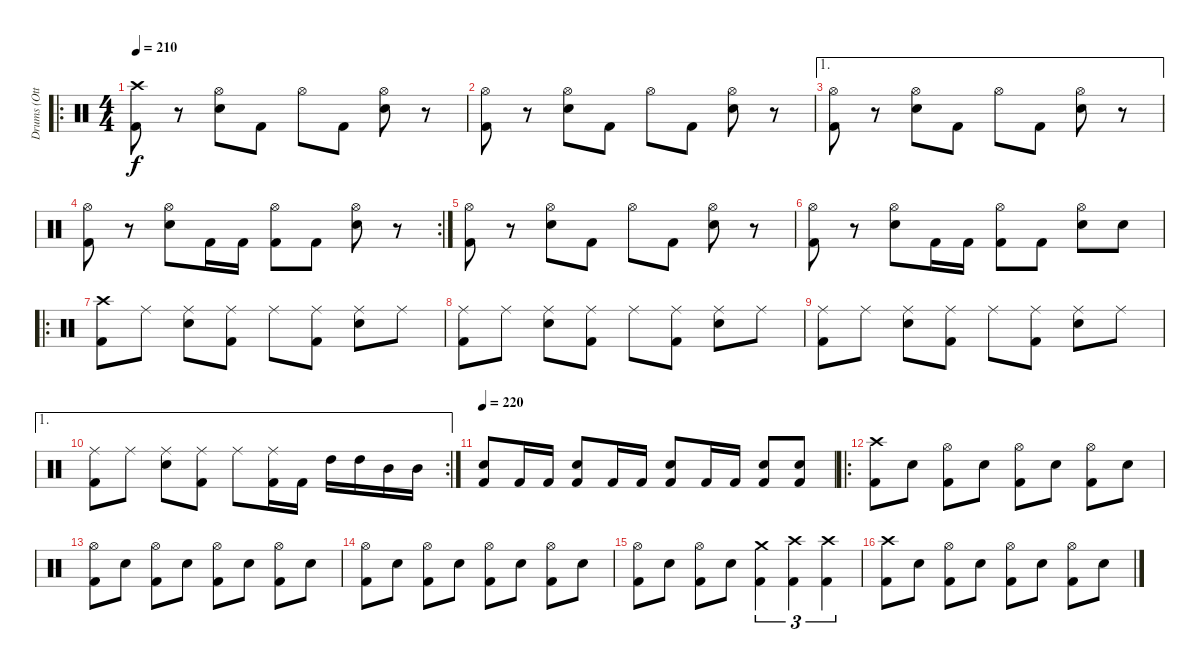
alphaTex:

\track ("Drums (Otto)" "Drums (Ott") {instrument percussion}
\staff {score}
\articulation defaults
\ro
\ts (4 4)
\tempo 210
\clef neutral
\ks c
("Crash high (hit)" "Kick (hit) 2").8{dy f} r.8 ("Hi-Hat (open)" "Electric Snare (hit)").8 "Kick (hit) 2".8 "Hi-Hat (open)".8 "Kick (hit) 2".8 ("Hi-Hat (open)" "Electric Snare (hit)").8 r.8 |
("Hi-Hat (open)" "Kick (hit) 2").8 r.8 ("Hi-Hat (open)" "Electric Snare (hit)").8 "Kick (hit) 2".8 "Hi-Hat (open)".8 "Kick (hit) 2".8 ("Hi-Hat (open)" "Electric Snare (hit)").8 r.8 |
\ae 1
("Hi-Hat (open)" "Kick (hit) 2").8 r.8 ("Hi-Hat (open)" "Electric Snare (hit)").8 "Kick (hit) 2".8 "Hi-Hat (open)".8 "Kick (hit) 2".8 ("Hi-Hat (open)" "Electric Snare (hit)").8 r.8 |
\rc 2
("Hi-Hat (open)" "Kick (hit) 2").8 r.8 ("Hi-Hat (open)" "Electric Snare (hit)").8 "Kick (hit) 2".16 "Kick (hit) 2".16 ("Hi-Hat (open)" "Kick (hit) 2").8 "Kick (hit) 2".8 ("Hi-Hat (open)" "Electric Snare (hit)").8 r.8 |
("Hi-Hat (open)" "Kick (hit) 2").8 r.8 ("Hi-Hat (open)" "Electric Snare (hit)").8 "Kick (hit) 2".8 "Hi-Hat (open)".8 "Kick (hit) 2".8 ("Hi-Hat (open)" "Electric Snare (hit)").8 r.8 |
("Hi-Hat (open)" "Kick (hit) 2").8 r.8 ("Hi-Hat (open)" "Electric Snare (hit)").8 "Kick (hit) 2".16 "Kick (hit) 2".16 ("Hi-Hat (open)" "Kick (hit) 2").8 "Kick (hit) 2".8 ("Hi-Hat (open)" "Electric Snare (hit)").8 "Electric Snare (hit)".8 |
\ro
("Crash high (hit)" "Kick (hit) 2").8 "Ride (middle)".8 ("Ride (middle)" "Electric Snare (hit)").8 ("Ride (middle)" "Kick (hit) 2").8 "Ride (middle)".8 ("Ride (middle)" "Kick (hit) 2").8 ("Ride (middle)" "Electric Snare (hit)").8 "Ride (middle)".8 |
("Ride (middle)" "Kick (hit) 2").8 "Ride (middle)".8 ("Ride (middle)" "Electric Snare (hit)").8 ("Ride (middle)" "Kick (hit) 2").8 "Ride (middle)".8 ("Ride (middle)" "Kick (hit) 2").8 ("Ride (middle)" "Electric Snare (hit)").8 "Ride (middle)".8 |
("Ride (middle)" "Kick (hit) 2").8 "Ride (middle)".8 ("Ride (middle)" "Electric Snare (hit)").8 ("Ride (middle)" "Kick (hit) 2").8 "Ride (middle)".8 ("Ride (middle)" "Kick (hit) 2").8 ("Ride (middle)" "Electric Snare (hit)").8 "Ride (middle)".8 |
\ae 1
\rc 2
("Ride (middle)" "Kick (hit) 2").8 "Ride (middle)".8 ("Ride (middle)" "Electric Snare (hit)").8 ("Ride (middle)" "Kick (hit) 2").8 "Ride (middle)".8 ("Ride (middle)" "Kick (hit) 2").16 "Kick (hit) 2".16 "High Tom (hit)".16 "High Tom (hit)".16 "Mid Tom (hit)".16 "Mid Tom (hit)".16 |
\tempo 220
("Electric Snare (hit)" "Kick (hit) 2").8 "Kick (hit) 2".16 "Kick (hit) 2".16 ("Electric Snare (hit)" "Kick (hit) 2").8 "Kick (hit) 2".16 "Kick (hit) 2".16 ("Electric Snare (hit)" "Kick (hit) 2").8 "Kick (hit) 2".16 "Kick (hit) 2".16 ("Electric Snare (hit)" "Kick (hit) 2").8 ("Electric Snare (hit)" "Kick (hit) 2").8 |
\ro
("Crash high (hit)" "Kick (hit) 2").8 "Electric Snare (hit)".8 ("Hi-Hat (open)" "Kick (hit) 2").8 "Electric Snare (hit)".8 ("Hi-Hat (open)" "Kick (hit) 2").8 "Electric Snare (hit)".8 ("Hi-Hat (open)" "Kick (hit) 2").8 "Electric Snare (hit)".8 |
("Hi-Hat (open)" "Kick (hit) 2").8 "Electric Snare (hit)".8 ("Hi-Hat (open)" "Kick (hit) 2").8 "Electric Snare (hit)".8 ("Hi-Hat (open)" "Kick (hit) 2").8 "Electric Snare (hit)".8 ("Hi-Hat (open)" "Kick (hit) 2").8 "Electric Snare (hit)".8 |
("Hi-Hat (open)" "Kick (hit) 2").8 "Electric Snare (hit)".8 ("Hi-Hat (open)" "Kick (hit) 2").8 "Electric Snare (hit)".8 ("Hi-Hat (open)" "Kick (hit) 2").8 "Electric Snare (hit)".8 ("Hi-Hat (open)" "Kick (hit) 2").8 "Electric Snare (hit)".8 |
("Hi-Hat (open)" "Kick (hit) 2").8 "Electric Snare (hit)".8 ("Hi-Hat (open)" "Kick (hit) 2").8 "Electric Snare (hit)".8 ("Crash medium (hit)" "Kick (hit) 2").4{tu (3 2)} ("Crash high (hit)" "Kick (hit) 2").4{tu (3 2)} ("Crash high (hit)" "Kick (hit) 2").4{tu (3 2)} |
("Crash high (hit)" "Kick (hit) 2").8 "Electric Snare (hit)".8 ("Hi-Hat (open)" "Kick (hit) 2").8 "Electric Snare (hit)".8 ("Hi-Hat (open)" "Kick (hit) 2").8 "Electric Snare (hit)".8 ("Hi-Hat (open)" "Kick (hit) 2").8 "Electric Snare (hit)".8
